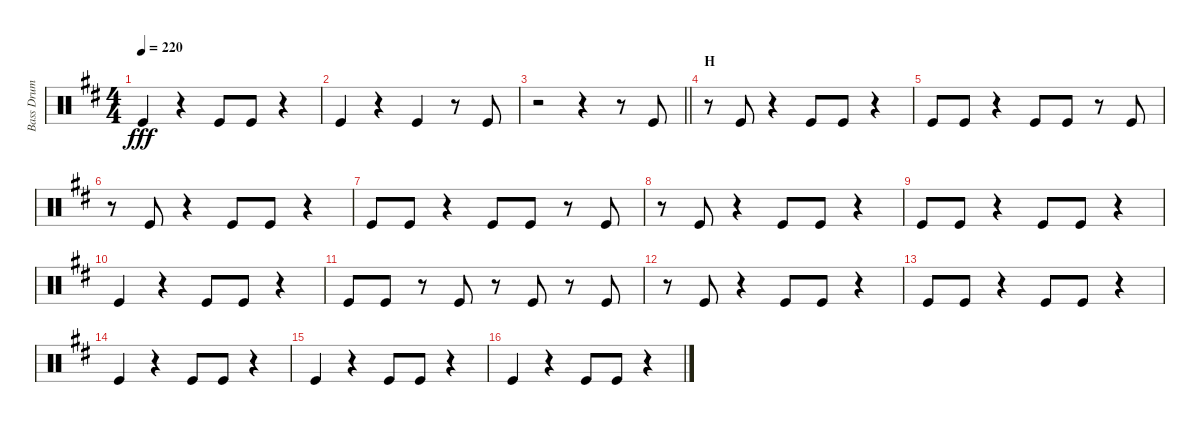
\track ("Bass Drum" "Bass Drum") {instrument percussion}
\staff {score}
\articulation defaults
\ts (4 4)
\tempo 220
\clef neutral
\ks d "Kick (hit)".4{dy fff}
r.4 "Kick (hit)".8 "Kick (hit)".8 r.4 |
"Kick (hit)".4 r.4 "Kick (hit)".4 r.8 "Kick (hit)".8 |
\barLineRight lightlight
r.2 r.4 r.8 "Kick (hit)".8 |
\section ("" "H")
r.8 "Kick (hit)".8 r.4 "Kick (hit)".8 "Kick (hit)".8 r.4 |
"Kick (hit)".8 "Kick (hit)".8 r.4 "Kick (hit)".8 "Kick (hit)".8 r.8 "Kick (hit)".8 |
r.8 "Kick (hit)".8 r.4 "Kick (hit)".8 "Kick (hit)".8 r.4 |
"Kick (hit)".8 "Kick (hit)".8 r.4 "Kick (hit)".8 "Kick (hit)".8 r.8 "Kick (hit)".8 |
r.8 "Kick (hit)".8 r.4 "Kick (hit)".8 "Kick (hit)".8 r.4 |
"Kick (hit)".8 "Kick (hit)".8 r.4 "Kick (hit)".8 "Kick (hit)".8 r.4 |
"Kick (hit)".4 r.4 "Kick (hit)".8 "Kick (hit)".8 r.4 |
"Kick (hit)".8 "Kick (hit)".8 r.8 "Kick (hit)".8 r.8 "Kick (hit)".8 r.8 "Kick (hit)".8 |
r.8 "Kick (hit)".8 r.4 "Kick (hit)".8 "Kick (hit)".8 r.4 |
"Kick (hit)".8 "Kick (hit)".8 r.4 "Kick (hit)".8 "Kick (hit)".8 r.4 |
"Kick (hit)".4 r.4 "Kick (hit)".8 "Kick (hit)".8 r.4 |
"Kick (hit)".4 r.4 "Kick (hit)".8 "Kick (hit)".8 r.4 |
"Kick (hit)".4 r.4 "Kick (hit)".8 "Kick (hit)".8 r.4
